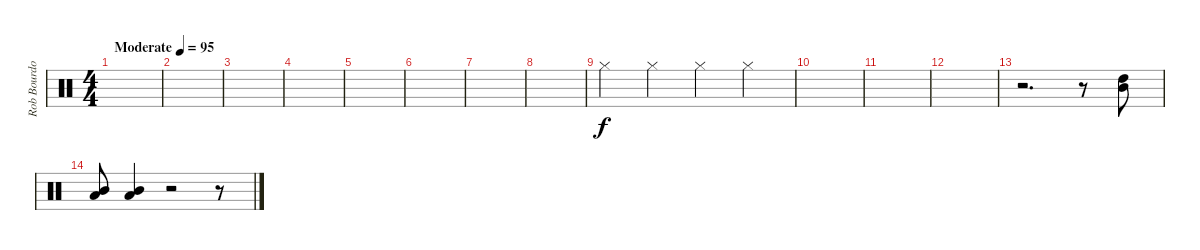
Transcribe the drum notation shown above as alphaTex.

\track ("Rob Bourdon" "Rob Bourdo") {instrument percussion}
\staff {score}
\articulation defaults
\ts (4 4)
\tempo (95 "Moderate")
\clef neutral
\ks c
|
|
|
|
|
|
|
|
"Hi-Hat (closed)".4{volume 15} "Hi-Hat (closed)".4 "Hi-Hat (closed)".4 "Hi-Hat (closed)".4 |
|
|
|
r.2{d} r.8 ("Mid Tom (hit)" "High Tom (hit)").8{dy f} |
("Low Tom (hit)" "Mid Tom (hit)").8 ("Mid Tom (hit)" "Low Tom (hit)").4 r.2 r.8
